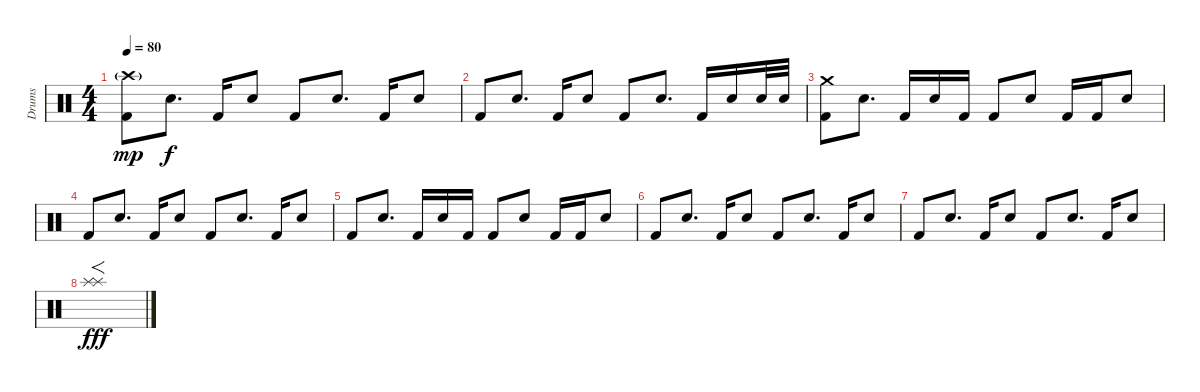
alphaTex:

\track ("Drums" "Drums") {instrument percussion}
\staff {score}
\articulation defaults
\ts (4 4)
\tempo 80
\clef neutral
\ks c
("Kick (hit) 2" "Crash high (hit)"{g}).8{dy mp} "Snare (hit) 2".8{d dy f} "Kick (hit) 2".16 "Snare (hit) 2".8 "Kick (hit) 2".8 "Snare (hit) 2".8{d} "Kick (hit) 2".16 "Snare (hit) 2".8 |
"Kick (hit) 2".8 "Snare (hit) 2".8{d} "Kick (hit) 2".16 "Snare (hit) 2".8 "Kick (hit) 2".8 "Snare (hit) 2".8{d} "Kick (hit) 2".16 "Snare (hit) 2".16 "Snare (hit) 2".32 "Snare (hit) 2".32 |
("Kick (hit) 2" "Crash medium (hit)").8 "Snare (hit) 2".8{d} "Kick (hit) 2".16 "Snare (hit) 2".16 "Kick (hit) 2".16 "Kick (hit) 2".8 "Snare (hit) 2".8 "Kick (hit) 2".16 "Kick (hit) 2".16 "Snare (hit) 2".8 |
"Kick (hit) 2".8 "Snare (hit) 2".8{d} "Kick (hit) 2".16 "Snare (hit) 2".8 "Kick (hit) 2".8 "Snare (hit) 2".8{d} "Kick (hit) 2".16 "Snare (hit) 2".8 |
"Kick (hit) 2".8 "Snare (hit) 2".8{d} "Kick (hit) 2".16 "Snare (hit) 2".16 "Kick (hit) 2".16 "Kick (hit) 2".8 "Snare (hit) 2".8 "Kick (hit) 2".16 "Kick (hit) 2".16 "Snare (hit) 2".8 |
"Kick (hit) 2".8 "Snare (hit) 2".8{d} "Kick (hit) 2".16 "Snare (hit) 2".8 "Kick (hit) 2".8 "Snare (hit) 2".8{d} "Kick (hit) 2".16 "Snare (hit) 2".8 |
"Kick (hit) 2".8 "Snare (hit) 2".8{d} "Kick (hit) 2".16 "Snare (hit) 2".8 "Kick (hit) 2".8 "Snare (hit) 2".8{d} "Kick (hit) 2".16 "Snare (hit) 2".8 |
("Splash (hit)" "Splash (hit)").1{f dy fff}
